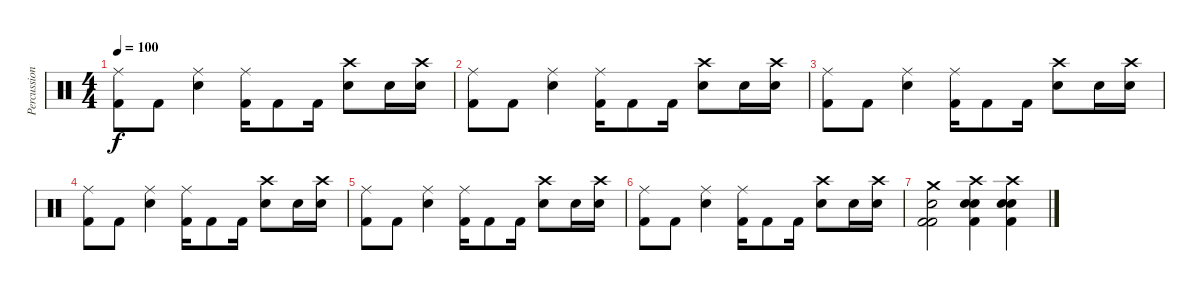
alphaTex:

\track ("Percussion - Drums" "Percussion") {instrument percussion}
\staff {score}
\articulation defaults
\ts (4 4)
\tempo 100
\clef neutral
\ks c
("Ride (middle)" "Kick (hit) 2").8{dy f} "Kick (hit) 2".8 ("Ride (middle)" "Snare (hit) 2").4 ("Ride (middle)" "Kick (hit) 2").16 "Kick (hit) 2".8 "Kick (hit) 2".16 ("Crash high (hit)" "Snare (hit) 2").8 "Snare (hit) 2".16 ("Crash high (hit)" "Snare (hit) 2").16 |
("Ride (middle)" "Kick (hit) 2").8 "Kick (hit) 2".8 ("Ride (middle)" "Snare (hit) 2").4 ("Ride (middle)" "Kick (hit) 2").16 "Kick (hit) 2".8 "Kick (hit) 2".16 ("Crash high (hit)" "Snare (hit) 2").8 "Snare (hit) 2".16 ("Crash high (hit)" "Snare (hit) 2").16 |
("Ride (middle)" "Kick (hit) 2").8 "Kick (hit) 2".8 ("Ride (middle)" "Snare (hit) 2").4 ("Ride (middle)" "Kick (hit) 2").16 "Kick (hit) 2".8 "Kick (hit) 2".16 ("Crash high (hit)" "Snare (hit) 2").8 "Snare (hit) 2".16 ("Crash high (hit)" "Snare (hit) 2").16 |
("Ride (middle)" "Kick (hit) 2").8 "Kick (hit) 2".8 ("Ride (middle)" "Snare (hit) 2").4 ("Ride (middle)" "Kick (hit) 2").16 "Kick (hit) 2".8 "Kick (hit) 2".16 ("Crash high (hit)" "Snare (hit) 2").8 "Snare (hit) 2".16 ("Crash high (hit)" "Snare (hit) 2").16 |
("Ride (middle)" "Kick (hit) 2").8 "Kick (hit) 2".8 ("Ride (middle)" "Snare (hit) 2").4 ("Ride (middle)" "Kick (hit) 2").16 "Kick (hit) 2".8 "Kick (hit) 2".16 ("Crash high (hit)" "Snare (hit) 2").8 "Snare (hit) 2".16 ("Crash high (hit)" "Snare (hit) 2").16 |
("Ride (middle)" "Kick (hit) 2").8 "Kick (hit) 2".8 ("Ride (middle)" "Snare (hit) 2").4 ("Ride (middle)" "Kick (hit) 2").16 "Kick (hit) 2".8 "Kick (hit) 2".16 ("Crash high (hit)" "Snare (hit) 2").8 "Snare (hit) 2".16 ("Crash high (hit)" "Snare (hit) 2").16 |
("Crash medium (hit)" "Snare (hit) 2" "Kick (hit) 2" "Kick (hit) 2").2 ("Crash high (hit)" "Snare (hit) 2" "Kick (hit) 2" "Snare (hit) 2").4 ("Crash high (hit)" "Snare (hit) 2" "Kick (hit) 2" "Snare (hit) 2").4
